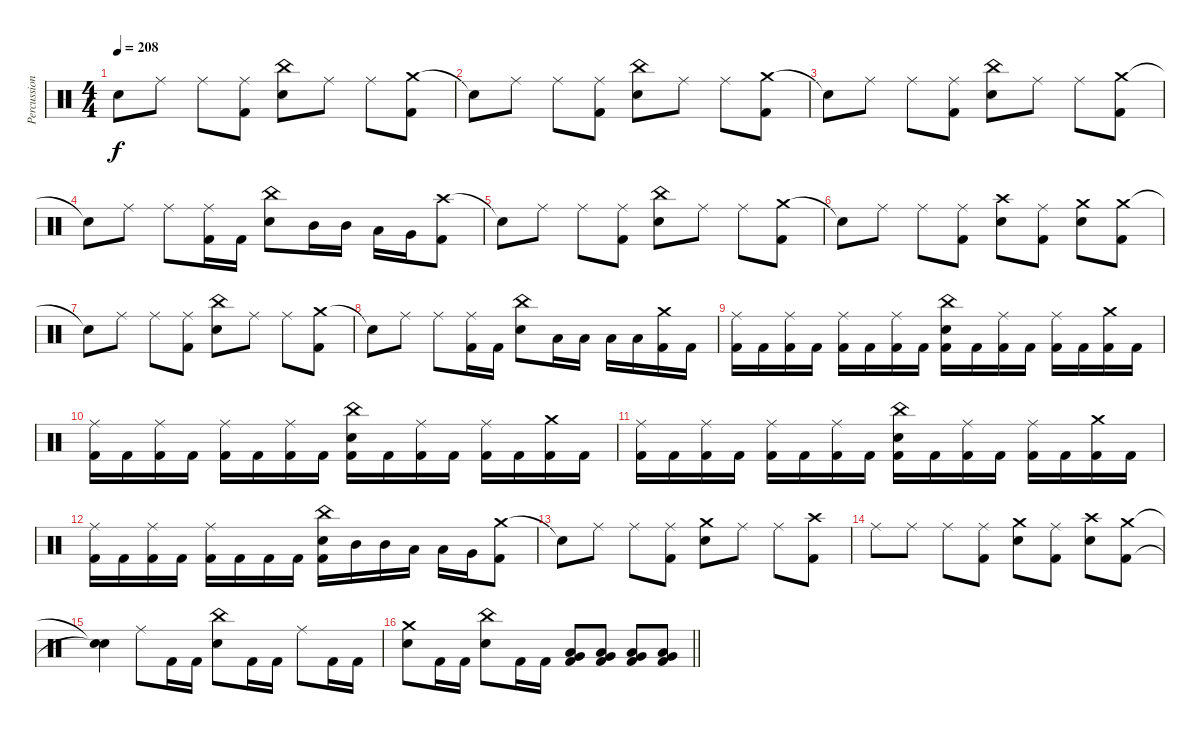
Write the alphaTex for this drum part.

\track ("Percussion" "Percussion") {instrument percussion}
\staff {score}
\articulation defaults
\ts (4 4)
\tempo 208
\clef neutral
\ks c "Snare (hit)"{t}.8{dy f} "Ride (middle)".8 "Ride (middle)".8
("Ride (middle)" "Kick (hit) 2").8 ("China (hit)" "Snare (hit) 2").8 "Ride (middle)".8 "Ride (middle)".8 ("Crash medium (hit)" "Kick (hit) 2").8 |
"Snare (hit)"{t}.8 "Ride (middle)".8 "Ride (middle)".8 ("Ride (middle)" "Kick (hit) 2").8 ("China (hit)" "Snare (hit) 2").8 "Ride (middle)".8 "Ride (middle)".8 ("Crash medium (hit)" "Kick (hit) 2").8 |
"Snare (hit)"{t}.8 "Ride (middle)".8 "Ride (middle)".8 ("Ride (middle)" "Kick (hit) 2").8 ("China (hit)" "Snare (hit) 2").8 "Ride (middle)".8 "Ride (middle)".8 ("Crash medium (hit)" "Kick (hit) 2").8 |
"Snare (hit)"{t}.8 "Ride (middle)".8 "Ride (middle)".8 ("Ride (middle)" "Kick (hit) 2").16 "Kick (hit) 2".16 ("China (hit)" "Snare (hit) 2").8 "Mid Tom (hit)".16 "Mid Tom (hit)".16 "Low Tom (hit)".16 "Very Low Tom (hit)".16 ("Crash high (hit)" "Kick (hit) 2").8 |
"Snare (hit)"{t}.8 "Ride (middle)".8 "Ride (middle)".8 ("Ride (middle)" "Kick (hit) 2").8 ("China (hit)" "Snare (hit) 2").8 "Ride (middle)".8 "Ride (middle)".8 ("Crash medium (hit)" "Kick (hit) 2").8 |
"Snare (hit)"{t}.8 "Ride (middle)".8 "Ride (middle)".8 ("Ride (middle)" "Kick (hit) 2").8 ("Crash high (hit)" "Snare (hit) 2").8 ("Ride (middle)" "Kick (hit) 2").8 ("Crash medium (hit)" "Snare (hit) 2").8 ("Crash medium (hit)" "Kick (hit) 2").8 |
"Snare (hit)"{t}.8 "Ride (middle)".8 "Ride (middle)".8 ("Ride (middle)" "Kick (hit) 2").8 ("China (hit)" "Snare (hit) 2").8 "Ride (middle)".8 "Ride (middle)".8 ("Crash medium (hit)" "Kick (hit) 2").8 |
"Snare (hit)"{t}.8 "Ride (middle)".8 "Ride (middle)".8 ("Ride (middle)" "Kick (hit) 2").16 "Kick (hit) 2".16 ("China (hit)" "Snare (hit) 2").8 "Low Tom (hit)".16 "Low Tom (hit)".16 "Low Tom (hit)".16 "Low Tom (hit)".16 ("Crash medium (hit)" "Kick (hit) 2").16 "Kick (hit) 2".16 |
("Ride (middle)" "Kick (hit) 2").16 "Kick (hit) 2".16 ("Ride (middle)" "Kick (hit) 2").16 "Kick (hit) 2".16 ("Ride (middle)" "Kick (hit) 2").16 "Kick (hit) 2".16 ("Ride (middle)" "Kick (hit) 2").16 "Kick (hit) 2".16 ("China (hit)" "Snare (hit) 2" "Kick (hit) 2").16 "Kick (hit) 2".16 ("Ride (middle)" "Kick (hit) 2").16 "Kick (hit) 2".16 ("Ride (middle)" "Kick (hit) 2").16 "Kick (hit) 2".16 ("Crash medium (hit)" "Kick (hit) 2").16 "Kick (hit) 2".16 |
("Ride (middle)" "Kick (hit) 2").16 "Kick (hit) 2".16 ("Ride (middle)" "Kick (hit) 2").16 "Kick (hit) 2".16 ("Ride (middle)" "Kick (hit) 2").16 "Kick (hit) 2".16 ("Ride (middle)" "Kick (hit) 2").16 "Kick (hit) 2".16 ("China (hit)" "Snare (hit) 2" "Kick (hit) 2").16 "Kick (hit) 2".16 ("Ride (middle)" "Kick (hit) 2").16 "Kick (hit) 2".16 ("Ride (middle)" "Kick (hit) 2").16 "Kick (hit) 2".16 ("Crash medium (hit)" "Kick (hit) 2").16 "Kick (hit) 2".16 |
("Ride (middle)" "Kick (hit) 2").16 "Kick (hit) 2".16 ("Ride (middle)" "Kick (hit) 2").16 "Kick (hit) 2".16 ("Ride (middle)" "Kick (hit) 2").16 "Kick (hit) 2".16 ("Ride (middle)" "Kick (hit) 2").16 "Kick (hit) 2".16 ("China (hit)" "Snare (hit) 2" "Kick (hit) 2").16 "Kick (hit) 2".16 ("Ride (middle)" "Kick (hit) 2").16 "Kick (hit) 2".16 ("Ride (middle)" "Kick (hit) 2").16 "Kick (hit) 2".16 ("Crash medium (hit)" "Kick (hit) 2").16 "Kick (hit) 2".16 |
("Ride (middle)" "Kick (hit) 2").16 "Kick (hit) 2".16 ("Ride (middle)" "Kick (hit) 2").16 "Kick (hit) 2".16 ("Ride (middle)" "Kick (hit) 2").16 "Kick (hit) 2".16 "Kick (hit) 2".16 "Kick (hit) 2".16 ("China (hit)" "Snare (hit) 2" "Kick (hit) 2").16 "Mid Tom (hit)".16 "Mid Tom (hit)".16 "Low Tom (hit)".16 "Low Tom (hit)".16 "Very Low Tom (hit)".16 ("Crash medium (hit)" "Kick (hit) 2").8 |
"Snare (hit)"{t}.8 "Ride (middle)".8 "Ride (middle)".8 ("Ride (middle)" "Kick (hit) 2").8 ("Crash medium (hit)" "Snare (hit) 2").8 "Ride (middle)".8 "Ride (middle)".8 ("Crash high (hit)" "Kick (hit) 2").8 |
"Ride (middle)".8 "Ride (middle)".8 "Ride (middle)".8 ("Ride (middle)" "Kick (hit) 2").8 ("Crash medium (hit)" "Snare (hit) 2").8 ("Ride (middle)" "Kick (hit) 2").8 ("Crash high (hit)" "Snare (hit) 2").8 ("Crash medium (hit)" "Kick (hit) 2").8 |
("Snare (hit)"{t} "Snare (hit)"{t}).4 "Ride (middle)".8 "Kick (hit) 2".16 "Kick (hit) 2".16 ("China (hit)" "Snare (hit) 2").8 "Kick (hit) 2".16 "Kick (hit) 2".16 "Ride (middle)".8 "Kick (hit) 2".16 "Kick (hit) 2".16 |
\barLineRight lightlight
("Crash medium (hit)" "Snare (hit) 2").8 "Kick (hit) 2".16 "Kick (hit) 2".16 ("China (hit)" "Snare (hit) 2").8 "Kick (hit) 2".16 "Kick (hit) 2".16 ("Very Low Tom (hit)" "Low Floor Tom (hit)" "Kick (hit) 2").8 ("Low Tom (hit)" "Very Low Tom (hit)" "Kick (hit) 2").8 ("Low Tom (hit)" "Very Low Tom (hit)" "Kick (hit) 2").8 ("Low Tom (hit)" "Very Low Tom (hit)" "Kick (hit) 2").8
